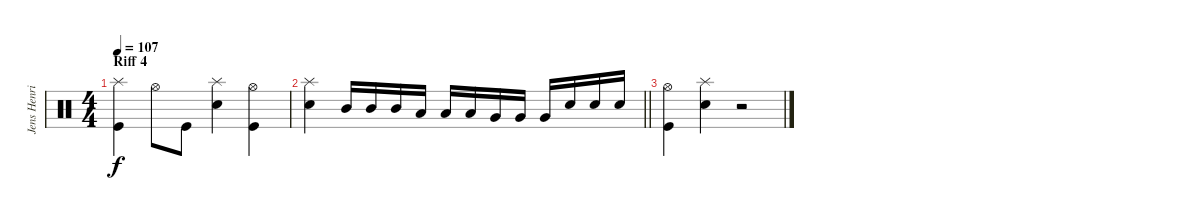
\track ("Jens Henriksson" "Jens Henri") {instrument percussion}
\staff {score}
\articulation defaults
\ts (4 4)
\section ("" "Riff 4")
\tempo 107
\clef neutral
\ks aminor
("Splash (hit)" "Kick (hit)").4{dy f} "Hi-Hat (open)".8 "Kick (hit)".8 ("Splash (hit)" "Snare (hit) 2").4 ("Hi-Hat (open)" "Kick (hit)").4 |
\barLineRight lightlight
("Splash (hit)" "Snare (hit) 2").4 "Mid Tom (hit)".16 "Mid Tom (hit)".16 "Mid Tom (hit)".16 "Low Tom (hit)".16 "Low Tom (hit)".16 "Low Tom (hit)".16 "Very Low Tom (hit)".16 "Very Low Tom (hit)".16 "Very Low Tom (hit)".16 "Snare (hit) 2".16 "Snare (hit) 2".16 "Snare (hit) 2".16 |
("Hi-Hat (open)" "Kick (hit)").4 ("Splash (hit)" "Snare (hit) 2").4 r.2
